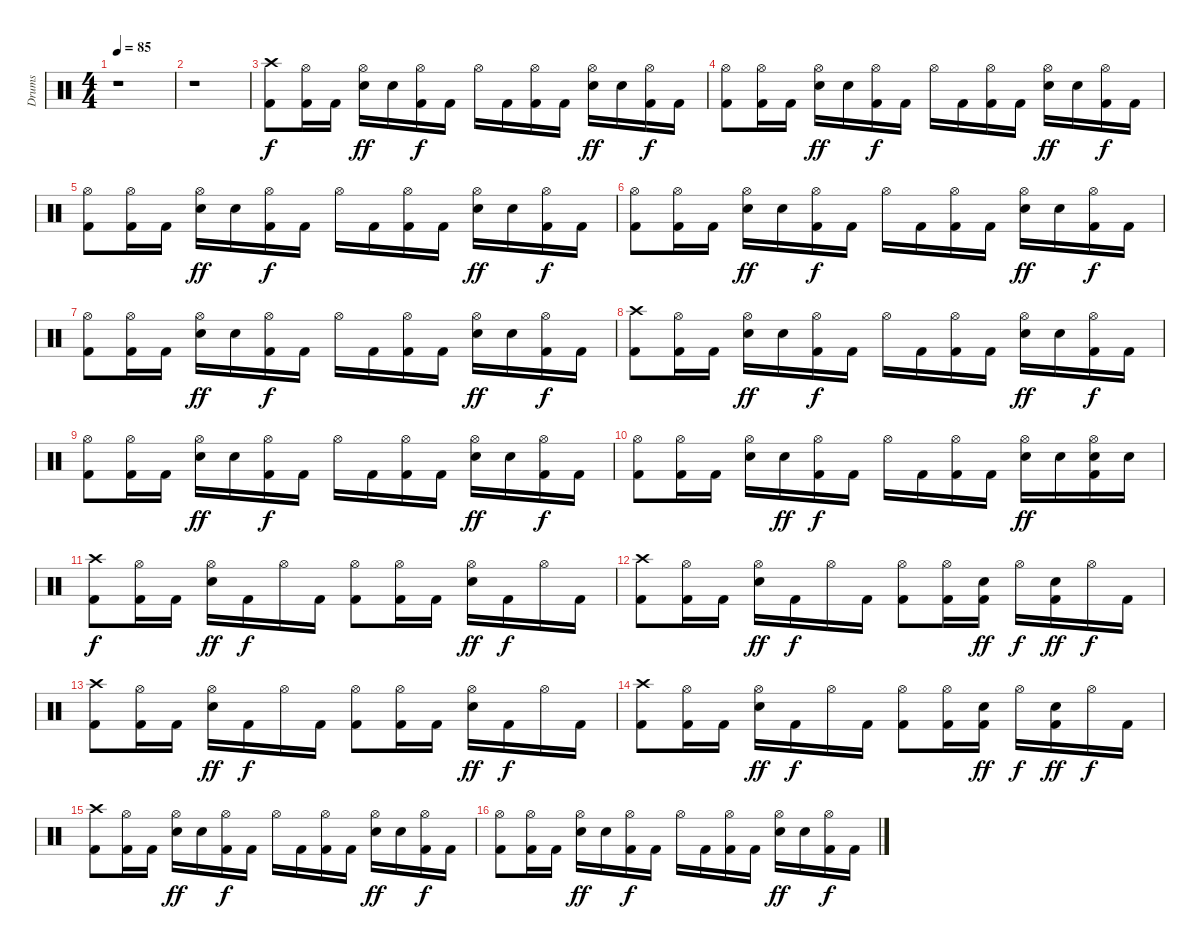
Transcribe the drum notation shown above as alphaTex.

\track ("Drums" "Drums") {instrument percussion}
\staff {score}
\articulation defaults
\ts (4 4)
\tempo 85
\clef neutral
\ks c
r.1{dy f} |
r.1 |
("Crash high (hit)" "Kick (hit) 2").8 ("Hi-Hat (open)" "Kick (hit) 2").16 "Kick (hit) 2".16 ("Hi-Hat (open)" "Electric Snare (hit)").16{dy ff} "Electric Snare (hit)".16 ("Hi-Hat (open)" "Kick (hit) 2").16{dy f} "Kick (hit) 2".16 "Hi-Hat (open)".16 "Kick (hit) 2".16 ("Hi-Hat (open)" "Kick (hit) 2").16 "Kick (hit) 2".16 ("Hi-Hat (open)" "Electric Snare (hit)").16{dy ff} "Electric Snare (hit)".16 ("Hi-Hat (open)" "Kick (hit) 2").16{dy f} "Kick (hit) 2".16 |
("Hi-Hat (open)" "Kick (hit) 2").8 ("Hi-Hat (open)" "Kick (hit) 2").16 "Kick (hit) 2".16 ("Hi-Hat (open)" "Electric Snare (hit)").16{dy ff} "Electric Snare (hit)".16 ("Hi-Hat (open)" "Kick (hit) 2").16{dy f} "Kick (hit) 2".16 "Hi-Hat (open)".16 "Kick (hit) 2".16 ("Hi-Hat (open)" "Kick (hit) 2").16 "Kick (hit) 2".16 ("Hi-Hat (open)" "Electric Snare (hit)").16{dy ff} "Electric Snare (hit)".16 ("Hi-Hat (open)" "Kick (hit) 2").16{dy f} "Kick (hit) 2".16 |
("Hi-Hat (open)" "Kick (hit) 2").8 ("Hi-Hat (open)" "Kick (hit) 2").16 "Kick (hit) 2".16 ("Hi-Hat (open)" "Electric Snare (hit)").16{dy ff} "Electric Snare (hit)".16 ("Hi-Hat (open)" "Kick (hit) 2").16{dy f} "Kick (hit) 2".16 "Hi-Hat (open)".16 "Kick (hit) 2".16 ("Hi-Hat (open)" "Kick (hit) 2").16 "Kick (hit) 2".16 ("Hi-Hat (open)" "Electric Snare (hit)").16{dy ff} "Electric Snare (hit)".16 ("Hi-Hat (open)" "Kick (hit) 2").16{dy f} "Kick (hit) 2".16 |
("Hi-Hat (open)" "Kick (hit) 2").8 ("Hi-Hat (open)" "Kick (hit) 2").16 "Kick (hit) 2".16 ("Hi-Hat (open)" "Electric Snare (hit)").16{dy ff} "Electric Snare (hit)".16 ("Hi-Hat (open)" "Kick (hit) 2").16{dy f} "Kick (hit) 2".16 "Hi-Hat (open)".16 "Kick (hit) 2".16 ("Hi-Hat (open)" "Kick (hit) 2").16 "Kick (hit) 2".16 ("Hi-Hat (open)" "Electric Snare (hit)").16{dy ff} "Electric Snare (hit)".16 ("Hi-Hat (open)" "Kick (hit) 2").16{dy f} "Kick (hit) 2".16 |
("Hi-Hat (open)" "Kick (hit) 2").8 ("Hi-Hat (open)" "Kick (hit) 2").16 "Kick (hit) 2".16 ("Hi-Hat (open)" "Electric Snare (hit)").16{dy ff} "Electric Snare (hit)".16 ("Hi-Hat (open)" "Kick (hit) 2").16{dy f} "Kick (hit) 2".16 "Hi-Hat (open)".16 "Kick (hit) 2".16 ("Hi-Hat (open)" "Kick (hit) 2").16 "Kick (hit) 2".16 ("Hi-Hat (open)" "Electric Snare (hit)").16{dy ff} "Electric Snare (hit)".16 ("Hi-Hat (open)" "Kick (hit) 2").16{dy f} "Kick (hit) 2".16 |
("Crash high (hit)" "Kick (hit) 2").8 ("Hi-Hat (open)" "Kick (hit) 2").16 "Kick (hit) 2".16 ("Hi-Hat (open)" "Electric Snare (hit)").16{dy ff} "Electric Snare (hit)".16 ("Hi-Hat (open)" "Kick (hit) 2").16{dy f} "Kick (hit) 2".16 "Hi-Hat (open)".16 "Kick (hit) 2".16 ("Hi-Hat (open)" "Kick (hit) 2").16 "Kick (hit) 2".16 ("Hi-Hat (open)" "Electric Snare (hit)").16{dy ff} "Electric Snare (hit)".16 ("Hi-Hat (open)" "Kick (hit) 2").16{dy f} "Kick (hit) 2".16 |
("Hi-Hat (open)" "Kick (hit) 2").8 ("Hi-Hat (open)" "Kick (hit) 2").16 "Kick (hit) 2".16 ("Hi-Hat (open)" "Electric Snare (hit)").16{dy ff} "Electric Snare (hit)".16 ("Hi-Hat (open)" "Kick (hit) 2").16{dy f} "Kick (hit) 2".16 "Hi-Hat (open)".16 "Kick (hit) 2".16 ("Hi-Hat (open)" "Kick (hit) 2").16 "Kick (hit) 2".16 ("Hi-Hat (open)" "Electric Snare (hit)").16{dy ff} "Electric Snare (hit)".16 ("Hi-Hat (open)" "Kick (hit) 2").16{dy f} "Kick (hit) 2".16 |
("Hi-Hat (open)" "Kick (hit) 2").8 ("Hi-Hat (open)" "Kick (hit) 2").16 "Kick (hit) 2".16 ("Hi-Hat (open)" "Electric Snare (hit)").16 "Electric Snare (hit)".16{dy ff} ("Hi-Hat (open)" "Kick (hit) 2").16{dy f} "Kick (hit) 2".16 "Hi-Hat (open)".16 "Kick (hit) 2".16 ("Hi-Hat (open)" "Kick (hit) 2").16 "Kick (hit) 2".16 ("Hi-Hat (open)" "Electric Snare (hit)").16{dy ff} "Electric Snare (hit)".16 ("Hi-Hat (open)" "Electric Snare (hit)" "Kick (hit) 2").16 "Electric Snare (hit)".16 |
("Crash high (hit)" "Kick (hit) 2").8{dy f} ("Hi-Hat (open)" "Kick (hit) 2").16 "Kick (hit) 2".16 ("Hi-Hat (open)" "Electric Snare (hit)").16{dy ff} "Kick (hit) 2".16{dy f} "Hi-Hat (open)".16 "Kick (hit) 2".16 ("Hi-Hat (open)" "Kick (hit) 2").8 ("Hi-Hat (open)" "Kick (hit) 2").16 "Kick (hit) 2".16 ("Hi-Hat (open)" "Electric Snare (hit)").16{dy ff} "Kick (hit) 2".16{dy f} "Hi-Hat (open)".16 "Kick (hit) 2".16 |
("Crash high (hit)" "Kick (hit) 2").8 ("Hi-Hat (open)" "Kick (hit) 2").16 "Kick (hit) 2".16 ("Hi-Hat (open)" "Electric Snare (hit)").16{dy ff} "Kick (hit) 2".16{dy f} "Hi-Hat (open)".16 "Kick (hit) 2".16 ("Hi-Hat (open)" "Kick (hit) 2").8 ("Hi-Hat (open)" "Kick (hit) 2").16 ("Electric Snare (hit)" "Kick (hit) 2").16{dy ff} "Hi-Hat (open)".16{dy f} ("Electric Snare (hit)" "Kick (hit) 2").16{dy ff} "Hi-Hat (open)".16{dy f} "Kick (hit) 2".16 |
("Crash high (hit)" "Kick (hit) 2").8 ("Hi-Hat (open)" "Kick (hit) 2").16 "Kick (hit) 2".16 ("Hi-Hat (open)" "Electric Snare (hit)").16{dy ff} "Kick (hit) 2".16{dy f} "Hi-Hat (open)".16 "Kick (hit) 2".16 ("Hi-Hat (open)" "Kick (hit) 2").8 ("Hi-Hat (open)" "Kick (hit) 2").16 "Kick (hit) 2".16 ("Hi-Hat (open)" "Electric Snare (hit)").16{dy ff} "Kick (hit) 2".16{dy f} "Hi-Hat (open)".16 "Kick (hit) 2".16 |
("Crash high (hit)" "Kick (hit) 2").8 ("Hi-Hat (open)" "Kick (hit) 2").16 "Kick (hit) 2".16 ("Hi-Hat (open)" "Electric Snare (hit)").16{dy ff} "Kick (hit) 2".16{dy f} "Hi-Hat (open)".16 "Kick (hit) 2".16 ("Hi-Hat (open)" "Kick (hit) 2").8 ("Hi-Hat (open)" "Kick (hit) 2").16 ("Electric Snare (hit)" "Kick (hit) 2").16{dy ff} "Hi-Hat (open)".16{dy f} ("Electric Snare (hit)" "Kick (hit) 2").16{dy ff} "Hi-Hat (open)".16{dy f} "Kick (hit) 2".16 |
("Crash high (hit)" "Kick (hit) 2").8 ("Hi-Hat (open)" "Kick (hit) 2").16 "Kick (hit) 2".16 ("Hi-Hat (open)" "Electric Snare (hit)").16{dy ff} "Electric Snare (hit)".16 ("Hi-Hat (open)" "Kick (hit) 2").16{dy f} "Kick (hit) 2".16 "Hi-Hat (open)".16 "Kick (hit) 2".16 ("Hi-Hat (open)" "Kick (hit) 2").16 "Kick (hit) 2".16 ("Hi-Hat (open)" "Electric Snare (hit)").16{dy ff} "Electric Snare (hit)".16 ("Hi-Hat (open)" "Kick (hit) 2").16{dy f} "Kick (hit) 2".16 |
("Hi-Hat (open)" "Kick (hit) 2").8 ("Hi-Hat (open)" "Kick (hit) 2").16 "Kick (hit) 2".16 ("Hi-Hat (open)" "Electric Snare (hit)").16{dy ff} "Electric Snare (hit)".16 ("Hi-Hat (open)" "Kick (hit) 2").16{dy f} "Kick (hit) 2".16 "Hi-Hat (open)".16 "Kick (hit) 2".16 ("Hi-Hat (open)" "Kick (hit) 2").16 "Kick (hit) 2".16 ("Hi-Hat (open)" "Electric Snare (hit)").16{dy ff} "Electric Snare (hit)".16 ("Hi-Hat (open)" "Kick (hit) 2").16{dy f} "Kick (hit) 2".16
